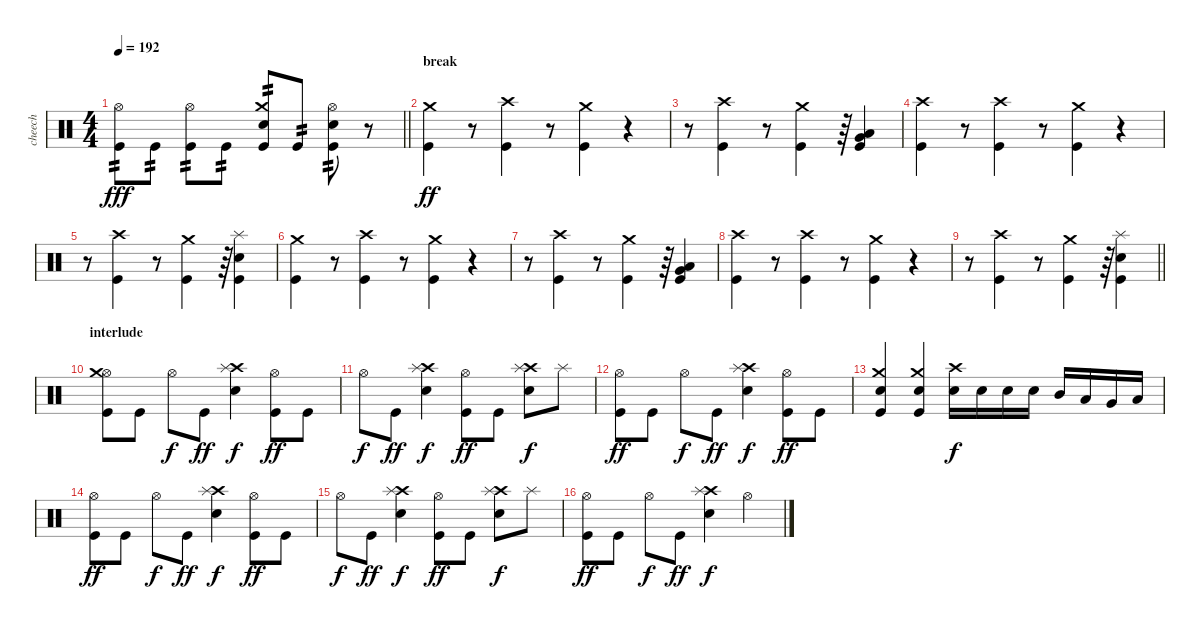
\track ("cheech" "cheech") {instrument percussion}
\staff {score}
\articulation defaults
\ts (4 4)
\tempo 192
\clef neutral
\barLineRight lightlight
\ks c
("Hi-Hat (open)" "Kick (hit)").8{tp 2 dy fff} "Kick (hit)".8{tp 2} ("Hi-Hat (open)" "Kick (hit)").8{tp 2} "Kick (hit)".8{tp 2} ("Crash medium (hit)" "Electric Snare (hit)" "Kick (hit)").8{tp 2} "Kick (hit)".8{tp 2} ("Hi-Hat (open)" "Electric Snare (hit)" "Kick (hit)").8{tp 2} r.8 |
\section ("" "break")
("Crash medium (hit)" "Kick (hit)").4{dy ff} r.8 ("Crash high (hit)" "Kick (hit)").4 r.8 ("Crash medium (hit)" "Kick (hit)").4 r.4 |
r.8 ("Crash high (hit)" "Kick (hit)").4 r.8 ("Crash medium (hit)" "Kick (hit)").4 r.64 ("Very Low Tom (hit)" "Low Floor Tom (hit)" "Kick (hit)").4 |
("Crash high (hit)" "Kick (hit)").4 r.8 ("Crash high (hit)" "Kick (hit)").4 r.8 ("Crash medium (hit)" "Kick (hit)").4 r.4 |
r.8 ("Crash high (hit)" "Kick (hit)").4 r.8 ("Crash medium (hit)" "Kick (hit)").4 r.64 ("Splash (hit)" "Electric Snare (hit)" "Kick (hit)").4 |
("Crash medium (hit)" "Kick (hit)").4 r.8 ("Crash high (hit)" "Kick (hit)").4 r.8 ("Crash medium (hit)" "Kick (hit)").4 r.4 |
r.8 ("Crash high (hit)" "Kick (hit)").4 r.8 ("Crash medium (hit)" "Kick (hit)").4 r.64 ("Very Low Tom (hit)" "Low Floor Tom (hit)" "Kick (hit)").4 |
("Crash high (hit)" "Kick (hit)").4 r.8 ("Crash high (hit)" "Kick (hit)").4 r.8 ("Crash medium (hit)" "Kick (hit)").4 r.4 |
\barLineRight lightlight
r.8 ("Crash high (hit)" "Kick (hit)").4 r.8 ("Crash medium (hit)" "Kick (hit)").4 r.64 ("Splash (hit)" "Electric Snare (hit)" "Kick (hit)").4 |
\section ("" "interlude")
("Hi-Hat (open)" "Crash medium (hit)" "Kick (hit)").8 "Kick (hit)".8 "Hi-Hat (open)".8{dy f} "Kick (hit)".8{dy ff} ("Crash high (hit)" "Splash (hit)" "Electric Snare (hit)").4{dy f} ("Hi-Hat (open)" "Kick (hit)").8{dy ff} "Kick (hit)".8 |
"Hi-Hat (open)".8{dy f} "Kick (hit)".8{dy ff} ("Crash high (hit)" "Splash (hit)" "Electric Snare (hit)").4{dy f} ("Hi-Hat (open)" "Kick (hit)").8{dy ff} "Kick (hit)".8 ("Crash high (hit)" "Splash (hit)" "Electric Snare (hit)").8{dy f} "Splash (hit)".8 |
("Hi-Hat (open)" "Kick (hit)").8{dy ff} "Kick (hit)".8 "Hi-Hat (open)".8{dy f} "Kick (hit)".8{dy ff} ("Crash high (hit)" "Splash (hit)" "Electric Snare (hit)").4{dy f} ("Hi-Hat (open)" "Kick (hit)").8{dy ff} "Kick (hit)".8 |
("Crash medium (hit)" "Electric Snare (hit)" "Kick (hit)"{tr (35 16)}).4 ("Crash medium (hit)" "Electric Snare (hit)" "Kick (hit)").4 ("Crash high (hit)" "Electric Snare (hit)").16{dy f} "Electric Snare (hit)".16 "Electric Snare (hit)".16 "Electric Snare (hit)".16 "Mid Tom (hit)".16 "Low Tom (hit)".16 "Very Low Tom (hit)".16 "Low Floor Tom (hit)".16 |
("Hi-Hat (open)" "Kick (hit)").8{dy ff} "Kick (hit)".8 "Hi-Hat (open)".8{dy f} "Kick (hit)".8{dy ff} ("Crash high (hit)" "Splash (hit)" "Electric Snare (hit)").4{dy f} ("Hi-Hat (open)" "Kick (hit)").8{dy ff} "Kick (hit)".8 |
"Hi-Hat (open)".8{dy f} "Kick (hit)".8{dy ff} ("Crash high (hit)" "Splash (hit)" "Electric Snare (hit)").4{dy f} ("Hi-Hat (open)" "Kick (hit)").8{dy ff} "Kick (hit)".8 ("Crash high (hit)" "Splash (hit)" "Electric Snare (hit)").8{dy f} "Splash (hit)".8 |
("Hi-Hat (open)" "Kick (hit)").8{dy ff} "Kick (hit)".8 "Hi-Hat (open)".8{dy f} "Kick (hit)".8{dy ff} ("Crash high (hit)" "Splash (hit)" "Electric Snare (hit)").4{dy f} "Hi-Hat (open)".4
